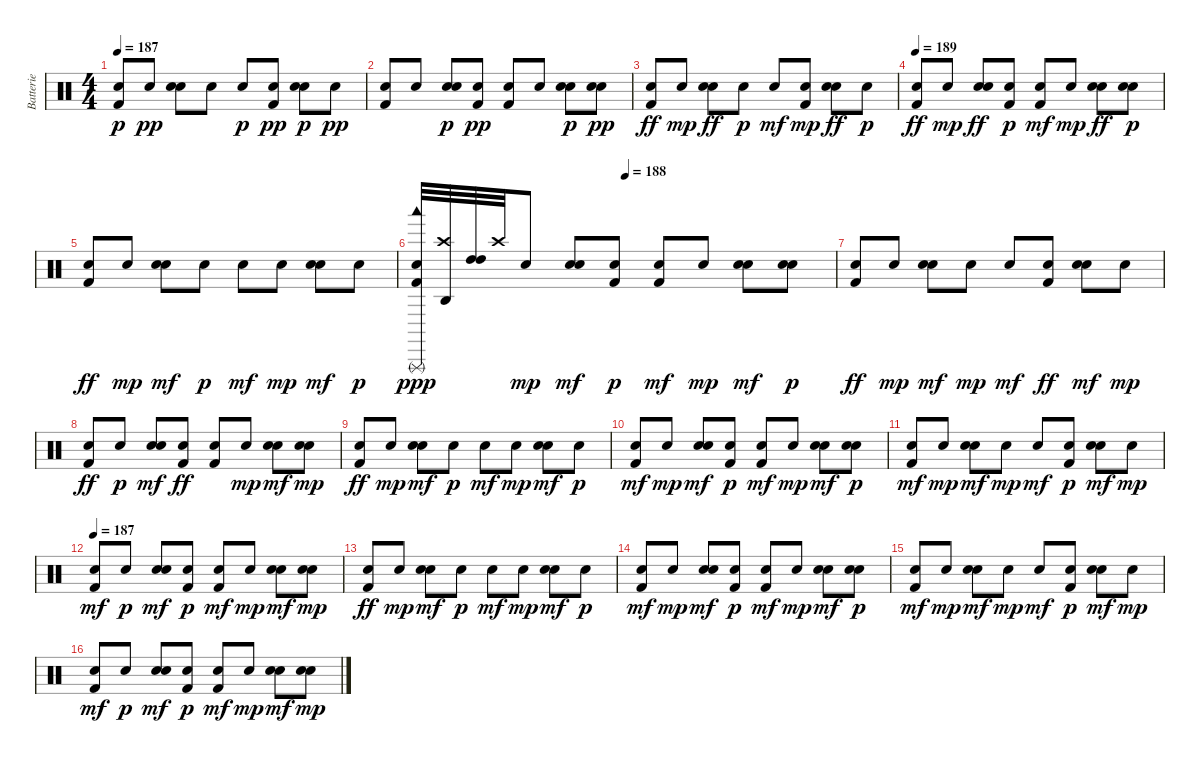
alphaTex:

\track ("Batterie            " "Batterie  ") {instrument percussion}
\staff {score}
\articulation defaults
\ts (4 4)
\tempo 187
\clef neutral
\ks c
("Kick (hit) 2" "Snare (hit) 2").8{dy p} "Snare (hit) 2".8{dy pp} ("Hand Clap (hit)" "Snare (hit) 2").8 "Snare (hit) 2".8 "Snare (hit) 2".8{dy p} ("Kick (hit) 2" "Snare (hit) 2").8{dy pp} ("Hand Clap (hit)" "Snare (hit) 2").8{dy p} "Snare (hit) 2".8{dy pp} |
("Kick (hit) 2" "Snare (hit) 2").8 "Snare (hit) 2".8 ("Hand Clap (hit)" "Snare (hit) 2").8{dy p} ("Kick (hit) 2" "Snare (hit) 2").8{dy pp} ("Kick (hit) 2" "Snare (hit) 2").8 "Snare (hit) 2".8 ("Hand Clap (hit)" "Snare (hit) 2").8{dy p} ("Hand Clap (hit)" "Snare (hit) 2").8{dy pp} |
("Kick (hit) 2" "Snare (hit) 2").8{dy ff} "Snare (hit) 2".8{dy mp} ("Snare (hit) 2" "Hand Clap (hit)").8{dy ff} "Snare (hit) 2".8{dy p} "Snare (hit) 2".8{dy mf} ("Kick (hit) 2" "Snare (hit) 2").8{dy mp} ("Snare (hit) 2" "Hand Clap (hit)").8{dy ff} "Snare (hit) 2".8{dy p} |
\tempo 189
("Snare (hit) 2" "Kick (hit) 2").8{dy ff} "Snare (hit) 2".8{dy mp} ("Snare (hit) 2" "Hand Clap (hit)").8{dy ff} ("Snare (hit) 2" "Kick (hit) 2").8{dy p} ("Snare (hit) 2" "Kick (hit) 2").8{dy mf} "Snare (hit) 2".8{dy mp} ("Snare (hit) 2" "Hand Clap (hit)").8{dy ff} ("Snare (hit) 2" "Hand Clap (hit)").8{dy p} |
("Snare (hit) 2" "Kick (hit) 2").8{dy ff} "Snare (hit) 2".8{dy mp} ("Hand Clap (hit)" "Snare (hit) 2").8{dy mf} "Snare (hit) 2".8{dy p} "Snare (hit) 2".8{dy mf} "Snare (hit) 2".8{dy mp} ("Hand Clap (hit)" "Snare (hit) 2").8{dy mf} "Snare (hit) 2".8{dy p} |
\tempo (188 0.5)
("Snare (hit) 2" "Kick (hit) 2" "Woodblock low (hit)" "Triangle (rnute)").32{dy ppp} ("Agogo high (hit)" "Crash high (hit)").32 ("High Tom (hit)" "High Tom (hit)").32 "Crash high (hit)".32 "Snare (hit) 2".8{dy mp} ("Hand Clap (hit)" "Snare (hit) 2").8{dy mf} ("Snare (hit) 2" "Kick (hit) 2").8{dy p} ("Snare (hit) 2" "Kick (hit) 2").8{dy mf} "Snare (hit) 2".8{dy mp} ("Hand Clap (hit)" "Snare (hit) 2").8{dy mf} ("Hand Clap (hit)" "Snare (hit) 2").8{dy p} |
("Snare (hit) 2" "Kick (hit) 2").8{dy ff} "Snare (hit) 2".8{dy mp} ("Hand Clap (hit)" "Snare (hit) 2").8{dy mf} "Snare (hit) 2".8{dy mp} "Snare (hit) 2".8{dy mf} ("Snare (hit) 2" "Kick (hit) 2").8{dy ff} ("Hand Clap (hit)" "Snare (hit) 2").8{dy mf} "Snare (hit) 2".8{dy mp} |
("Snare (hit) 2" "Kick (hit) 2").8{dy ff} "Snare (hit) 2".8{dy p} ("Hand Clap (hit)" "Snare (hit) 2").8{dy mf} ("Snare (hit) 2" "Kick (hit) 2").8{dy ff} ("Snare (hit) 2" "Kick (hit) 2").8 "Snare (hit) 2".8{dy mp} ("Hand Clap (hit)" "Snare (hit) 2").8{dy mf} ("Hand Clap (hit)" "Snare (hit) 2").8{dy mp} |
("Kick (hit) 2" "Snare (hit) 2").8{dy ff} "Snare (hit) 2".8{dy mp} ("Hand Clap (hit)" "Snare (hit) 2").8{dy mf} "Snare (hit) 2".8{dy p} "Snare (hit) 2".8{dy mf} "Snare (hit) 2".8{dy mp} ("Hand Clap (hit)" "Snare (hit) 2").8{dy mf} "Snare (hit) 2".8{dy p} |
("Kick (hit) 2" "Snare (hit) 2").8{dy mf} "Snare (hit) 2".8{dy mp} ("Hand Clap (hit)" "Snare (hit) 2").8{dy mf} ("Kick (hit) 2" "Snare (hit) 2").8{dy p} ("Kick (hit) 2" "Snare (hit) 2").8{dy mf} "Snare (hit) 2".8{dy mp} ("Hand Clap (hit)" "Snare (hit) 2").8{dy mf} ("Hand Clap (hit)" "Snare (hit) 2").8{dy p} |
("Kick (hit) 2" "Snare (hit) 2").8{dy mf} "Snare (hit) 2".8{dy mp} ("Hand Clap (hit)" "Snare (hit) 2").8{dy mf} "Snare (hit) 2".8{dy mp} "Snare (hit) 2".8{dy mf} ("Kick (hit) 2" "Snare (hit) 2").8{dy p} ("Hand Clap (hit)" "Snare (hit) 2").8{dy mf} "Snare (hit) 2".8{dy mp} |
\tempo 187
("Kick (hit) 2" "Snare (hit) 2").8{dy mf} "Snare (hit) 2".8{dy p} ("Hand Clap (hit)" "Snare (hit) 2").8{dy mf} ("Kick (hit) 2" "Snare (hit) 2").8{dy p} ("Kick (hit) 2" "Snare (hit) 2").8{dy mf} "Snare (hit) 2".8{dy mp} ("Hand Clap (hit)" "Snare (hit) 2").8{dy mf} ("Hand Clap (hit)" "Snare (hit) 2").8{dy mp} |
("Kick (hit) 2" "Snare (hit) 2").8{dy ff} "Snare (hit) 2".8{dy mp} ("Hand Clap (hit)" "Snare (hit) 2").8{dy mf} "Snare (hit) 2".8{dy p} "Snare (hit) 2".8{dy mf} "Snare (hit) 2".8{dy mp} ("Hand Clap (hit)" "Snare (hit) 2").8{dy mf} "Snare (hit) 2".8{dy p} |
("Kick (hit) 2" "Snare (hit) 2").8{dy mf} "Snare (hit) 2".8{dy mp} ("Hand Clap (hit)" "Snare (hit) 2").8{dy mf} ("Kick (hit) 2" "Snare (hit) 2").8{dy p} ("Kick (hit) 2" "Snare (hit) 2").8{dy mf} "Snare (hit) 2".8{dy mp} ("Hand Clap (hit)" "Snare (hit) 2").8{dy mf} ("Hand Clap (hit)" "Snare (hit) 2").8{dy p} |
("Kick (hit) 2" "Snare (hit) 2").8{dy mf} "Snare (hit) 2".8{dy mp} ("Hand Clap (hit)" "Snare (hit) 2").8{dy mf} "Snare (hit) 2".8{dy mp} "Snare (hit) 2".8{dy mf} ("Kick (hit) 2" "Snare (hit) 2").8{dy p} ("Hand Clap (hit)" "Snare (hit) 2").8{dy mf} "Snare (hit) 2".8{dy mp} |
("Kick (hit) 2" "Snare (hit) 2").8{dy mf} "Snare (hit) 2".8{dy p} ("Hand Clap (hit)" "Snare (hit) 2").8{dy mf} ("Kick (hit) 2" "Snare (hit) 2").8{dy p} ("Kick (hit) 2" "Snare (hit) 2").8{dy mf} "Snare (hit) 2".8{dy mp} ("Hand Clap (hit)" "Snare (hit) 2").8{dy mf} ("Hand Clap (hit)" "Snare (hit) 2").8{dy mp}
